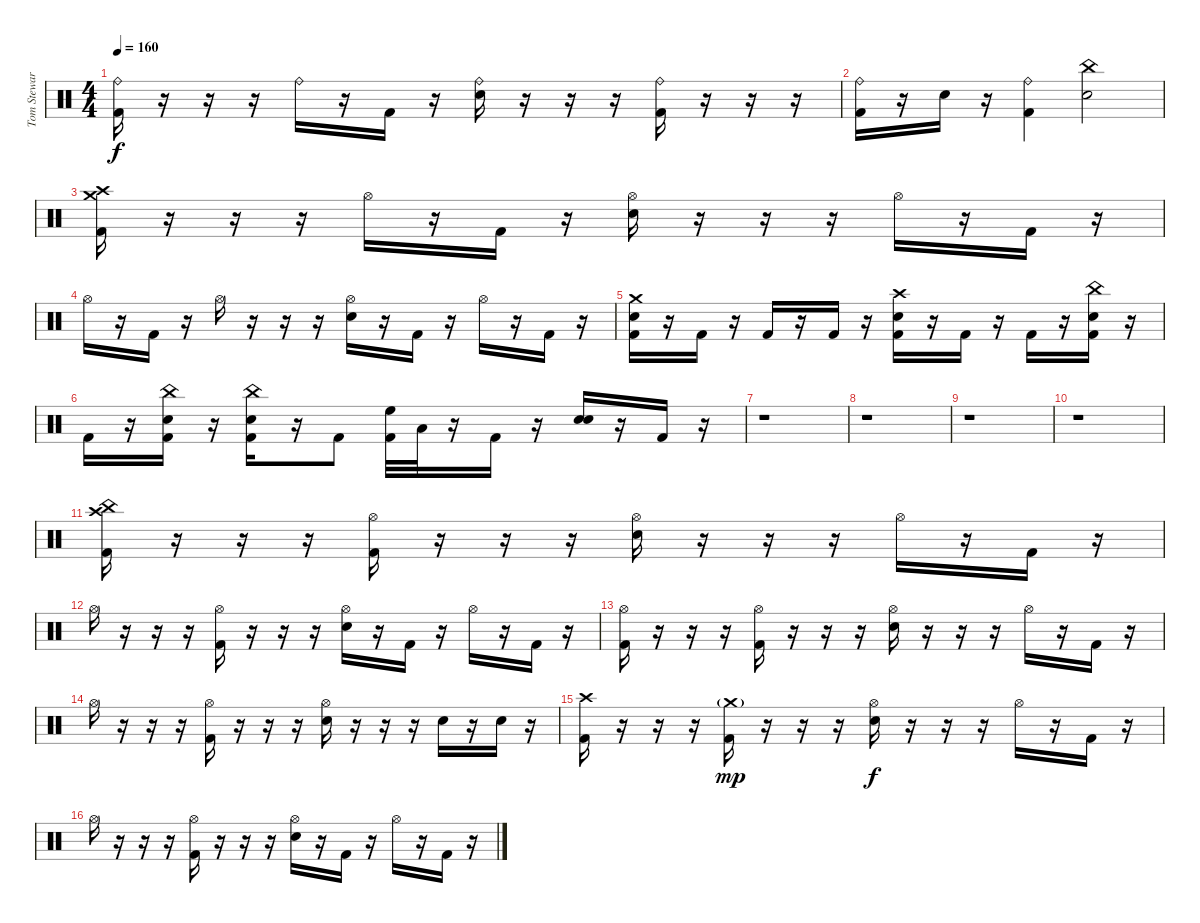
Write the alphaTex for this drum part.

\track ("Tom Steward" "Tom Stewar") {instrument percussion}
\staff {score}
\articulation defaults
\ts (4 4)
\tempo 160
\clef neutral
\ks c
("Ride (bell)" "Kick (hit) 2").16{dy f} r.16 r.16 r.16 "Ride (bell)".16 r.16 "Kick (hit) 2".16 r.16 ("Ride (bell)" "Snare (hit) 2").16 r.16 r.16 r.16 ("Ride (bell)" "Kick (hit) 2").16 r.16 r.16 r.16 |
("Ride (bell)" "Kick (hit) 2").16 r.16 "Snare (hit) 2".16 r.16 ("Ride (bell)" "Kick (hit) 2").4 ("China (hit)" "Snare (hit) 2").2 |
("Crash high (hit)" "Crash medium (hit)" "Kick (hit) 2").16 r.16 r.16 r.16 "Hi-Hat (open)".16 r.16 "Kick (hit) 2".16 r.16 ("Hi-Hat (open)" "Snare (hit) 2").16 r.16 r.16 r.16 "Hi-Hat (open)".16 r.16 "Kick (hit) 2".16 r.16 |
"Hi-Hat (open)".16 r.16 "Kick (hit) 2".16 r.16 "Hi-Hat (open)".16 r.16 r.16 r.16 ("Hi-Hat (open)" "Snare (hit) 2").16 r.16 "Kick (hit) 2".16 r.16 "Hi-Hat (open)".16 r.16 "Kick (hit) 2".16 r.16 |
("Crash medium (hit)" "Snare (hit) 2" "Kick (hit) 2").16 r.16 "Kick (hit) 2".16 r.16 "Kick (hit) 2".16 r.16 "Kick (hit) 2".16 r.16 ("Crash high (hit)" "Snare (hit) 2" "Kick (hit) 2").16 r.16 "Kick (hit) 2".16 r.16 "Kick (hit) 2".16 r.16 ("China (hit)" "Snare (hit) 2" "Kick (hit) 2").16 r.16 |
"Kick (hit) 2".16 r.16 ("China (hit)" "Snare (hit) 2" "Kick (hit) 2").16 r.16 ("China (hit)" "Snare (hit) 2" "Kick (hit) 2").16 r.16 "Kick (hit) 2".8 ("High Floor Tom (hit)" "Kick (hit) 2").32 "Low Tom (hit)".32 r.16 "Kick (hit) 2".16 r.16 ("Snare (hit) 2" "Snare (hit) 2").16 r.16 "Kick (hit) 2".16 r.16 |
r.1 |
r.1 |
r.1 |
r.1 |
("Crash high (hit)" "China (hit)" "Kick (hit) 2").16 r.16 r.16 r.16 ("Hi-Hat (open)" "Kick (hit) 2").16 r.16 r.16 r.16 ("Hi-Hat (open)" "Snare (hit) 2").16 r.16 r.16 r.16 "Hi-Hat (open)".16 r.16 "Kick (hit) 2".16 r.16 |
"Hi-Hat (open)".16 r.16 r.16 r.16 ("Hi-Hat (open)" "Kick (hit) 2").16 r.16 r.16 r.16 ("Hi-Hat (open)" "Snare (hit) 2").16 r.16 "Kick (hit) 2".16 r.16 "Hi-Hat (open)".16 r.16 "Kick (hit) 2".16 r.16 |
("Hi-Hat (open)" "Kick (hit) 2").16 r.16 r.16 r.16 ("Hi-Hat (open)" "Kick (hit) 2").16 r.16 r.16 r.16 ("Hi-Hat (open)" "Snare (hit) 2").16 r.16 r.16 r.16 "Hi-Hat (open)".16 r.16 "Kick (hit) 2".16 r.16 |
"Hi-Hat (open)".16 r.16 r.16 r.16 ("Hi-Hat (open)" "Kick (hit) 2").16 r.16 r.16 r.16 ("Hi-Hat (open)" "Snare (hit) 2").16 r.16 r.16 r.16 "Snare (hit) 2".16 r.16 "Snare (hit) 2".16 r.16 |
("Crash high (hit)" "Kick (hit) 2").16 r.16 r.16 r.16 ("Crash medium (hit)"{g} "Kick (hit) 2").16{dy mp} r.16 r.16 r.16 ("Hi-Hat (open)" "Snare (hit) 2").16{dy f} r.16 r.16 r.16 "Hi-Hat (open)".16 r.16 "Kick (hit) 2".16 r.16 |
"Hi-Hat (open)".16 r.16 r.16 r.16 ("Hi-Hat (open)" "Kick (hit) 2").16 r.16 r.16 r.16 ("Hi-Hat (open)" "Snare (hit) 2").16 r.16 "Kick (hit) 2".16 r.16 "Hi-Hat (open)".16 r.16 "Kick (hit) 2".16 r.16
